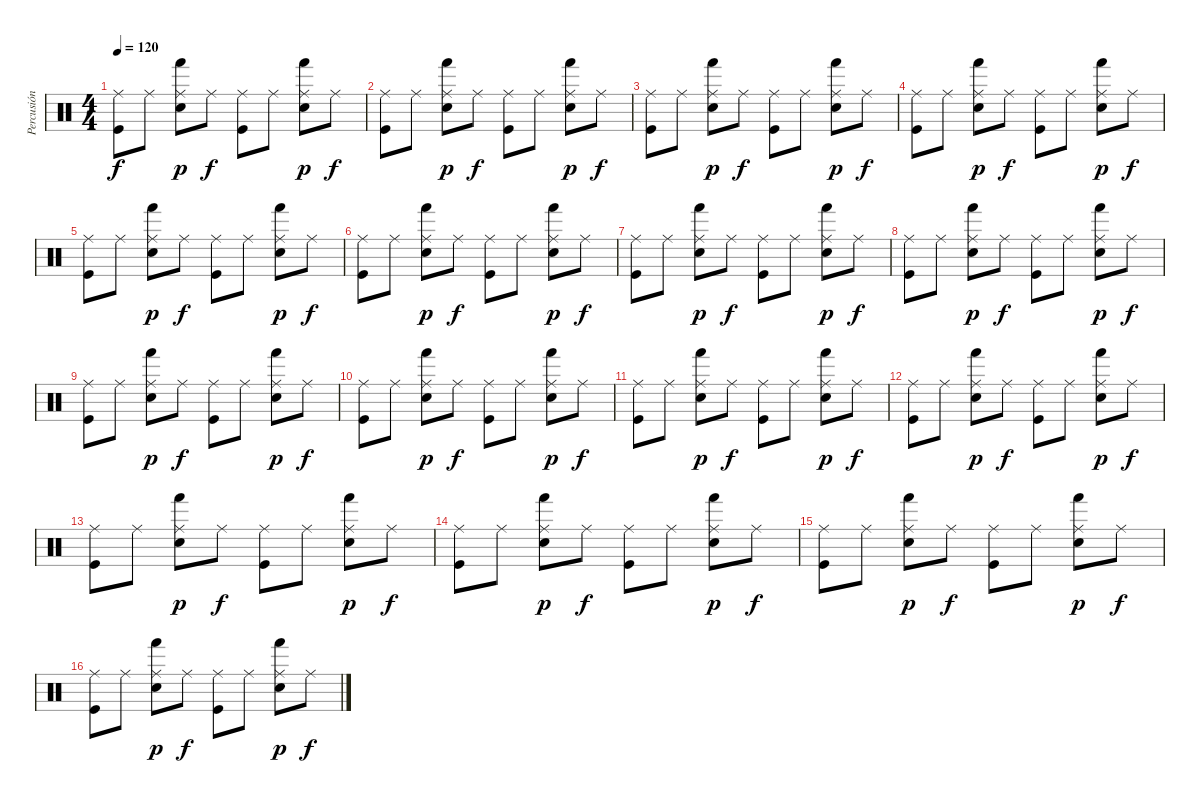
\track ("Percusión" "Percusión") {instrument percussion}
\staff {score}
\articulation defaults
\ts (4 4)
\tempo 120
\clef neutral
\ks c
("Ride (middle)" "Kick (hit)").8{dy f} "Ride (middle)".8 ("Ride (middle)" "Hand (hit)" "Electric Snare (hit)").8{dy p} "Ride (middle)".8{dy f} ("Ride (middle)" "Kick (hit)").8 "Ride (middle)".8 ("Ride (middle)" "Hand (hit)" "Electric Snare (hit)").8{dy p} "Ride (middle)".8{dy f} |
("Ride (middle)" "Kick (hit)").8 "Ride (middle)".8 ("Ride (middle)" "Hand (hit)" "Electric Snare (hit)").8{dy p} "Ride (middle)".8{dy f} ("Ride (middle)" "Kick (hit)").8 "Ride (middle)".8 ("Ride (middle)" "Hand (hit)" "Electric Snare (hit)").8{dy p} "Ride (middle)".8{dy f} |
("Ride (middle)" "Kick (hit)").8 "Ride (middle)".8 ("Ride (middle)" "Hand (hit)" "Electric Snare (hit)").8{dy p} "Ride (middle)".8{dy f} ("Ride (middle)" "Kick (hit)").8 "Ride (middle)".8 ("Ride (middle)" "Hand (hit)" "Electric Snare (hit)").8{dy p} "Ride (middle)".8{dy f} |
("Ride (middle)" "Kick (hit)").8 "Ride (middle)".8 ("Ride (middle)" "Hand (hit)" "Electric Snare (hit)").8{dy p} "Ride (middle)".8{dy f} ("Ride (middle)" "Kick (hit)").8 "Ride (middle)".8 ("Ride (middle)" "Hand (hit)" "Electric Snare (hit)").8{dy p} "Ride (middle)".8{dy f} |
("Ride (middle)" "Kick (hit)").8 "Ride (middle)".8 ("Ride (middle)" "Hand (hit)" "Electric Snare (hit)").8{dy p} "Ride (middle)".8{dy f} ("Ride (middle)" "Kick (hit)").8 "Ride (middle)".8 ("Ride (middle)" "Hand (hit)" "Electric Snare (hit)").8{dy p} "Ride (middle)".8{dy f} |
("Ride (middle)" "Kick (hit)").8 "Ride (middle)".8 ("Ride (middle)" "Hand (hit)" "Electric Snare (hit)").8{dy p} "Ride (middle)".8{dy f} ("Ride (middle)" "Kick (hit)").8 "Ride (middle)".8 ("Ride (middle)" "Hand (hit)" "Electric Snare (hit)").8{dy p} "Ride (middle)".8{dy f} |
("Ride (middle)" "Kick (hit)").8 "Ride (middle)".8 ("Ride (middle)" "Hand (hit)" "Electric Snare (hit)").8{dy p} "Ride (middle)".8{dy f} ("Ride (middle)" "Kick (hit)").8 "Ride (middle)".8 ("Ride (middle)" "Hand (hit)" "Electric Snare (hit)").8{dy p} "Ride (middle)".8{dy f} |
("Ride (middle)" "Kick (hit)").8 "Ride (middle)".8 ("Ride (middle)" "Hand (hit)" "Electric Snare (hit)").8{dy p} "Ride (middle)".8{dy f} ("Ride (middle)" "Kick (hit)").8 "Ride (middle)".8 ("Ride (middle)" "Hand (hit)" "Electric Snare (hit)").8{dy p} "Ride (middle)".8{dy f} |
("Ride (middle)" "Kick (hit)").8 "Ride (middle)".8 ("Ride (middle)" "Hand (hit)" "Electric Snare (hit)").8{dy p} "Ride (middle)".8{dy f} ("Ride (middle)" "Kick (hit)").8 "Ride (middle)".8 ("Ride (middle)" "Hand (hit)" "Electric Snare (hit)").8{dy p} "Ride (middle)".8{dy f} |
("Ride (middle)" "Kick (hit)").8 "Ride (middle)".8 ("Ride (middle)" "Hand (hit)" "Electric Snare (hit)").8{dy p} "Ride (middle)".8{dy f} ("Ride (middle)" "Kick (hit)").8 "Ride (middle)".8 ("Ride (middle)" "Hand (hit)" "Electric Snare (hit)").8{dy p} "Ride (middle)".8{dy f} |
("Ride (middle)" "Kick (hit)").8 "Ride (middle)".8 ("Ride (middle)" "Hand (hit)" "Electric Snare (hit)").8{dy p} "Ride (middle)".8{dy f} ("Ride (middle)" "Kick (hit)").8 "Ride (middle)".8 ("Ride (middle)" "Hand (hit)" "Electric Snare (hit)").8{dy p} "Ride (middle)".8{dy f} |
("Ride (middle)" "Kick (hit)").8 "Ride (middle)".8 ("Ride (middle)" "Hand (hit)" "Electric Snare (hit)").8{dy p} "Ride (middle)".8{dy f} ("Ride (middle)" "Kick (hit)").8 "Ride (middle)".8 ("Ride (middle)" "Hand (hit)" "Electric Snare (hit)").8{dy p} "Ride (middle)".8{dy f} |
("Ride (middle)" "Kick (hit)").8 "Ride (middle)".8 ("Ride (middle)" "Hand (hit)" "Electric Snare (hit)").8{dy p} "Ride (middle)".8{dy f} ("Ride (middle)" "Kick (hit)").8 "Ride (middle)".8 ("Ride (middle)" "Hand (hit)" "Electric Snare (hit)").8{dy p} "Ride (middle)".8{dy f} |
("Ride (middle)" "Kick (hit)").8 "Ride (middle)".8 ("Ride (middle)" "Hand (hit)" "Electric Snare (hit)").8{dy p} "Ride (middle)".8{dy f} ("Ride (middle)" "Kick (hit)").8 "Ride (middle)".8 ("Ride (middle)" "Hand (hit)" "Electric Snare (hit)").8{dy p} "Ride (middle)".8{dy f} |
("Ride (middle)" "Kick (hit)").8 "Ride (middle)".8 ("Ride (middle)" "Hand (hit)" "Electric Snare (hit)").8{dy p} "Ride (middle)".8{dy f} ("Ride (middle)" "Kick (hit)").8 "Ride (middle)".8 ("Ride (middle)" "Hand (hit)" "Electric Snare (hit)").8{dy p} "Ride (middle)".8{dy f} |
("Ride (middle)" "Kick (hit)").8 "Ride (middle)".8 ("Ride (middle)" "Hand (hit)" "Electric Snare (hit)").8{dy p} "Ride (middle)".8{dy f} ("Ride (middle)" "Kick (hit)").8 "Ride (middle)".8 ("Ride (middle)" "Hand (hit)" "Electric Snare (hit)").8{dy p} "Ride (middle)".8{dy f}
